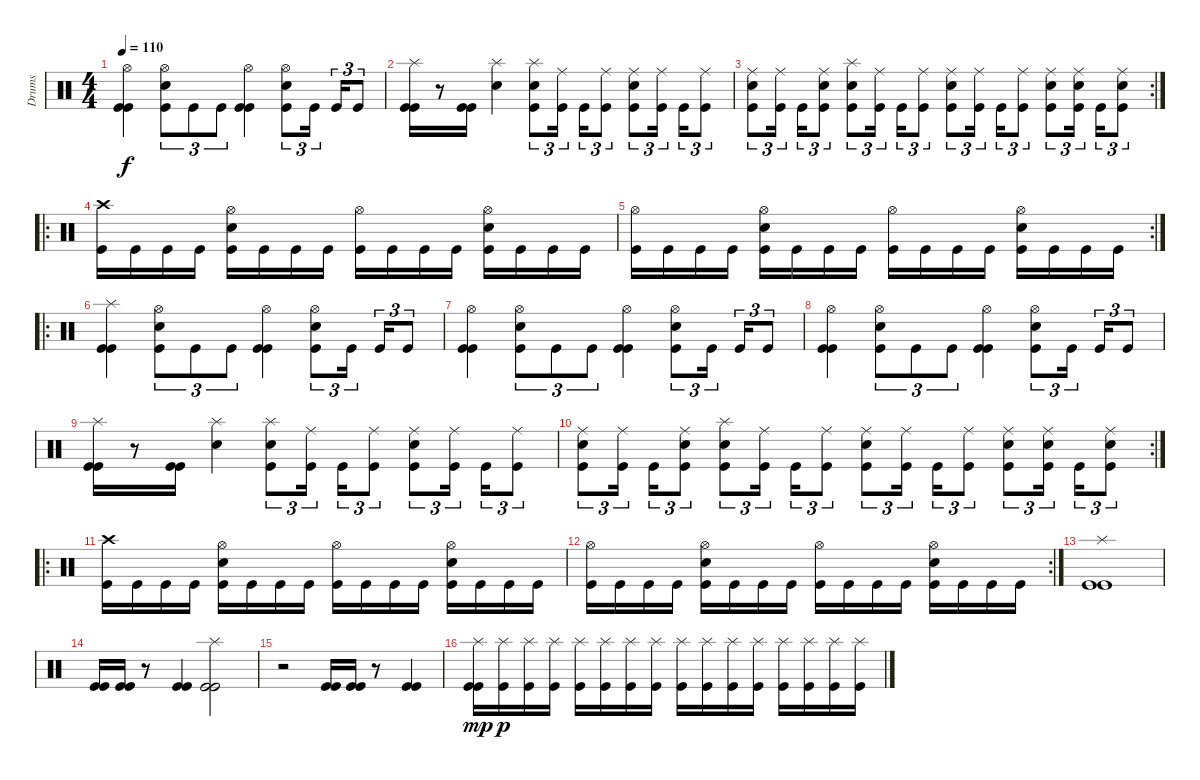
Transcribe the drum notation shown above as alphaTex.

\track ("Drums" "Drums") {instrument percussion}
\staff {score}
\articulation defaults
\ts (4 4)
\tempo 110
\clef neutral
\ks c
("Hi-Hat (open)" "Kick (hit)" "Kick (hit)").4{dy f} ("Hi-Hat (open)" "Snare (hit) 2" "Kick (hit)").8{tu (3 2)} "Kick (hit)".8{tu (3 2)} "Kick (hit)".8{tu (3 2)} ("Hi-Hat (open)" "Kick (hit)" "Kick (hit)").4 ("Hi-Hat (open)" "Snare (hit) 2" "Kick (hit)").8{tu (3 2)} "Kick (hit)".16{tu (3 2)} "Kick (hit)".16{tu (3 2)} "Kick (hit)".8{tu (3 2)} |
("Splash (hit)" "Kick (hit)" "Kick (hit)").16 r.8 ("Kick (hit)" "Kick (hit)").16 ("Splash (hit)" "Snare (hit) 2").4 ("Splash (hit)" "Snare (hit) 2" "Kick (hit)").8{tu (3 2)} ("Ride (middle)" "Kick (hit)").16{tu (3 2)} "Kick (hit)".16{tu (3 2)} ("Ride (middle)" "Kick (hit)").8{tu (3 2)} ("Ride (middle)" "Snare (hit) 2" "Kick (hit)").8{tu (3 2)} ("Ride (middle)" "Kick (hit)").16{tu (3 2)} "Kick (hit)".16{tu (3 2)} ("Ride (middle)" "Kick (hit)").8{tu (3 2)} |
\rc 2
("Ride (middle)" "Snare (hit) 2" "Kick (hit)").8{tu (3 2)} ("Ride (middle)" "Kick (hit)").16{tu (3 2)} "Kick (hit)".16{tu (3 2)} ("Ride (middle)" "Snare (hit) 2" "Kick (hit)").8{tu (3 2)} ("Splash (hit)" "Snare (hit) 2" "Kick (hit)").8{tu (3 2)} ("Ride (middle)" "Kick (hit)").16{tu (3 2)} "Kick (hit)".16{tu (3 2)} ("Ride (middle)" "Kick (hit)").8{tu (3 2)} ("Ride (middle)" "Snare (hit) 2" "Kick (hit)").8{tu (3 2)} ("Ride (middle)" "Kick (hit)").16{tu (3 2)} "Kick (hit)".16{tu (3 2)} ("Ride (middle)" "Kick (hit)").8{tu (3 2)} ("Ride (middle)" "Snare (hit) 2" "Kick (hit)").8{tu (3 2)} ("Ride (middle)" "Snare (hit) 2" "Kick (hit)").16{tu (3 2)} "Kick (hit)".16{tu (3 2)} ("Ride (middle)" "Snare (hit) 2" "Kick (hit)").8{tu (3 2)} |
\ro
("Crash high (hit)" "Kick (hit)").16 "Kick (hit)".16 "Kick (hit)".16 "Kick (hit)".16 ("Hi-Hat (open)" "Snare (hit) 2" "Kick (hit)").16 "Kick (hit)".16 "Kick (hit)".16 "Kick (hit)".16 ("Hi-Hat (open)" "Kick (hit)").16 "Kick (hit)".16 "Kick (hit)".16 "Kick (hit)".16 ("Hi-Hat (open)" "Snare (hit) 2" "Kick (hit)").16 "Kick (hit)".16 "Kick (hit)".16 "Kick (hit)".16 |
\rc 2
("Hi-Hat (open)" "Kick (hit)").16 "Kick (hit)".16 "Kick (hit)".16 "Kick (hit)".16 ("Hi-Hat (open)" "Snare (hit) 2" "Kick (hit)").16 "Kick (hit)".16 "Kick (hit)".16 "Kick (hit)".16 ("Hi-Hat (open)" "Kick (hit)").16 "Kick (hit)".16 "Kick (hit)".16 "Kick (hit)".16 ("Hi-Hat (open)" "Snare (hit) 2" "Kick (hit)").16 "Kick (hit)".16 "Kick (hit)".16 "Kick (hit)".16 |
\ro
("Splash (hit)" "Kick (hit)" "Kick (hit)").4 ("Hi-Hat (open)" "Snare (hit) 2" "Kick (hit)").8{tu (3 2)} "Kick (hit)".8{tu (3 2)} "Kick (hit)".8{tu (3 2)} ("Hi-Hat (open)" "Kick (hit)" "Kick (hit)").4 ("Hi-Hat (open)" "Snare (hit) 2" "Kick (hit)").8{tu (3 2)} "Kick (hit)".16{tu (3 2)} "Kick (hit)".16{tu (3 2)} "Kick (hit)".8{tu (3 2)} |
("Hi-Hat (open)" "Kick (hit)" "Kick (hit)").4 ("Hi-Hat (open)" "Snare (hit) 2" "Kick (hit)").8{tu (3 2)} "Kick (hit)".8{tu (3 2)} "Kick (hit)".8{tu (3 2)} ("Hi-Hat (open)" "Kick (hit)" "Kick (hit)").4 ("Hi-Hat (open)" "Snare (hit) 2" "Kick (hit)").8{tu (3 2)} "Kick (hit)".16{tu (3 2)} "Kick (hit)".16{tu (3 2)} "Kick (hit)".8{tu (3 2)} |
("Hi-Hat (open)" "Kick (hit)" "Kick (hit)").4 ("Hi-Hat (open)" "Snare (hit) 2" "Kick (hit)").8{tu (3 2)} "Kick (hit)".8{tu (3 2)} "Kick (hit)".8{tu (3 2)} ("Hi-Hat (open)" "Kick (hit)" "Kick (hit)").4 ("Hi-Hat (open)" "Snare (hit) 2" "Kick (hit)").8{tu (3 2)} "Kick (hit)".16{tu (3 2)} "Kick (hit)".16{tu (3 2)} "Kick (hit)".8{tu (3 2)} |
("Splash (hit)" "Kick (hit)" "Kick (hit)").16 r.8 ("Kick (hit)" "Kick (hit)").16 ("Splash (hit)" "Snare (hit) 2").4 ("Splash (hit)" "Snare (hit) 2" "Kick (hit)").8{tu (3 2)} ("Ride (middle)" "Kick (hit)").16{tu (3 2)} "Kick (hit)".16{tu (3 2)} ("Ride (middle)" "Kick (hit)").8{tu (3 2)} ("Ride (middle)" "Snare (hit) 2" "Kick (hit)").8{tu (3 2)} ("Ride (middle)" "Kick (hit)").16{tu (3 2)} "Kick (hit)".16{tu (3 2)} ("Ride (middle)" "Kick (hit)").8{tu (3 2)} |
\rc 2
("Ride (middle)" "Snare (hit) 2" "Kick (hit)").8{tu (3 2)} ("Ride (middle)" "Kick (hit)").16{tu (3 2)} "Kick (hit)".16{tu (3 2)} ("Ride (middle)" "Snare (hit) 2" "Kick (hit)").8{tu (3 2)} ("Splash (hit)" "Snare (hit) 2" "Kick (hit)").8{tu (3 2)} ("Ride (middle)" "Kick (hit)").16{tu (3 2)} "Kick (hit)".16{tu (3 2)} ("Ride (middle)" "Kick (hit)").8{tu (3 2)} ("Ride (middle)" "Snare (hit) 2" "Kick (hit)").8{tu (3 2)} ("Ride (middle)" "Kick (hit)").16{tu (3 2)} "Kick (hit)".16{tu (3 2)} ("Ride (middle)" "Kick (hit)").8{tu (3 2)} ("Ride (middle)" "Snare (hit) 2" "Kick (hit)").8{tu (3 2)} ("Ride (middle)" "Snare (hit) 2" "Kick (hit)").16{tu (3 2)} "Kick (hit)".16{tu (3 2)} ("Ride (middle)" "Snare (hit) 2" "Kick (hit)").8{tu (3 2)} |
\ro
("Crash high (hit)" "Kick (hit)").16 "Kick (hit)".16 "Kick (hit)".16 "Kick (hit)".16 ("Hi-Hat (open)" "Snare (hit) 2" "Kick (hit)").16 "Kick (hit)".16 "Kick (hit)".16 "Kick (hit)".16 ("Hi-Hat (open)" "Kick (hit)").16 "Kick (hit)".16 "Kick (hit)".16 "Kick (hit)".16 ("Hi-Hat (open)" "Snare (hit) 2" "Kick (hit)").16 "Kick (hit)".16 "Kick (hit)".16 "Kick (hit)".16 |
\rc 2
("Hi-Hat (open)" "Kick (hit)").16 "Kick (hit)".16 "Kick (hit)".16 "Kick (hit)".16 ("Hi-Hat (open)" "Snare (hit) 2" "Kick (hit)").16 "Kick (hit)".16 "Kick (hit)".16 "Kick (hit)".16 ("Hi-Hat (open)" "Kick (hit)").16 "Kick (hit)".16 "Kick (hit)".16 "Kick (hit)".16 ("Hi-Hat (open)" "Snare (hit) 2" "Kick (hit)").16 "Kick (hit)".16 "Kick (hit)".16 "Kick (hit)".16 |
("Splash (hit)" "Kick (hit)" "Kick (hit)").1 |
("Kick (hit)" "Kick (hit)").16 ("Kick (hit)" "Kick (hit)").16 r.8 ("Kick (hit)" "Kick (hit)").4 ("Splash (hit)" "Kick (hit)" "Kick (hit)").2 |
r.2 ("Kick (hit)" "Kick (hit)").16 ("Kick (hit)" "Kick (hit)").16 r.8 ("Kick (hit)" "Kick (hit)").4 |
("Splash (hit)" "Kick (hit)" "Kick (hit)").16{dy mp} ("Splash (hit)" "Kick (hit)").16{dy p} ("Splash (hit)" "Kick (hit)").16 ("Splash (hit)" "Kick (hit)").16 ("Splash (hit)" "Kick (hit)").16 ("Splash (hit)" "Kick (hit)").16 ("Splash (hit)" "Kick (hit)").16 ("Splash (hit)" "Kick (hit)").16 ("Splash (hit)" "Kick (hit)").16 ("Splash (hit)" "Kick (hit)").16 ("Splash (hit)" "Kick (hit)").16 ("Splash (hit)" "Kick (hit)").16 ("Splash (hit)" "Kick (hit)").16 ("Splash (hit)" "Kick (hit)").16 ("Splash (hit)" "Kick (hit)").16 ("Splash (hit)" "Kick (hit)").16
